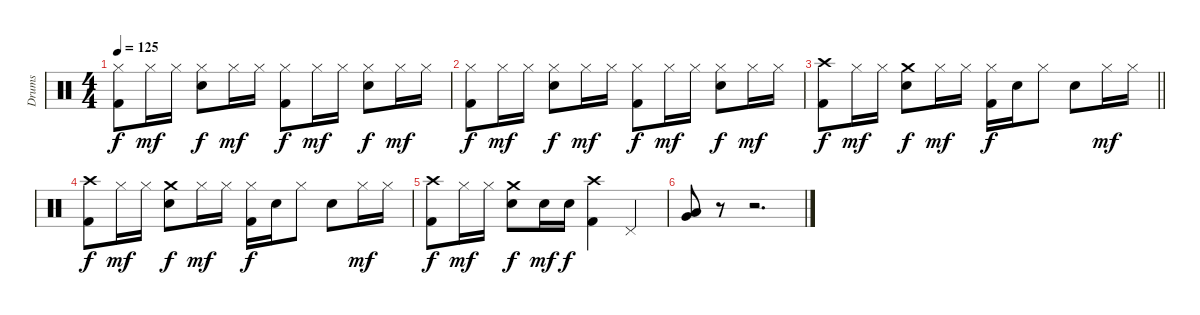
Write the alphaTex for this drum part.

\track ("Drums" "Drums") {instrument percussion}
\staff {score}
\articulation defaults
\ts (4 4)
\tempo 125
\clef neutral
\ks c
("Hi-Hat (closed)" "Kick (hit) 2").8{dy f} "Hi-Hat (closed)".16{dy mf} "Hi-Hat (closed)".16 ("Hi-Hat (closed)" "Snare (hit) 2").8{dy f} "Hi-Hat (closed)".16{dy mf} "Hi-Hat (closed)".16 ("Hi-Hat (closed)" "Kick (hit) 2").8{dy f} "Hi-Hat (closed)".16{dy mf} "Hi-Hat (closed)".16 ("Hi-Hat (closed)" "Snare (hit) 2").8{dy f} "Hi-Hat (closed)".16{dy mf} "Hi-Hat (closed)".16 |
("Hi-Hat (closed)" "Kick (hit) 2").8{dy f} "Hi-Hat (closed)".16{dy mf} "Hi-Hat (closed)".16 ("Hi-Hat (closed)" "Snare (hit) 2").8{dy f} "Hi-Hat (closed)".16{dy mf} "Hi-Hat (closed)".16 ("Hi-Hat (closed)" "Kick (hit) 2").8{dy f} "Hi-Hat (closed)".16{dy mf} "Hi-Hat (closed)".16 ("Hi-Hat (closed)" "Snare (hit) 2").8{dy f} "Hi-Hat (closed)".16{dy mf} "Hi-Hat (closed)".16 |
\barLineRight lightlight
("Crash high (hit)" "Kick (hit) 2").8{dy f} "Hi-Hat (closed)".16{dy mf} "Hi-Hat (closed)".16 ("Crash medium (hit)" "Snare (hit) 2").8{dy f} "Hi-Hat (closed)".16{dy mf} "Hi-Hat (closed)".16 ("Hi-Hat (closed)" "Kick (hit) 2").16{dy f} "Snare (hit) 2".16 "Hi-Hat (closed)".8 "Snare (hit) 2".8 "Hi-Hat (closed)".16{dy mf} "Hi-Hat (closed)".16 |
("Crash high (hit)" "Kick (hit) 2").8{dy f} "Hi-Hat (closed)".16{dy mf} "Hi-Hat (closed)".16 ("Crash medium (hit)" "Snare (hit) 2").8{dy f} "Hi-Hat (closed)".16{dy mf} "Hi-Hat (closed)".16 ("Hi-Hat (closed)" "Kick (hit) 2").16{dy f} "Snare (hit) 2".16 "Hi-Hat (closed)".8 "Snare (hit) 2".8 "Hi-Hat (closed)".16{dy mf} "Hi-Hat (closed)".16 |
("Crash high (hit)" "Kick (hit) 2").8{dy f} "Hi-Hat (closed)".16{dy mf} "Hi-Hat (closed)".16 ("Crash medium (hit)" "Snare (hit) 2").8{dy f} "Snare (hit) 2".16{dy mf} "Snare (hit) 2".16{dy f} ("Crash high (hit)" "Kick (hit) 2").4 "Pedal Hi-Hat (hit)".4 |
("Low Floor Tom (hit)" "Very Low Tom (hit)").8 r.8 r.2{d}
